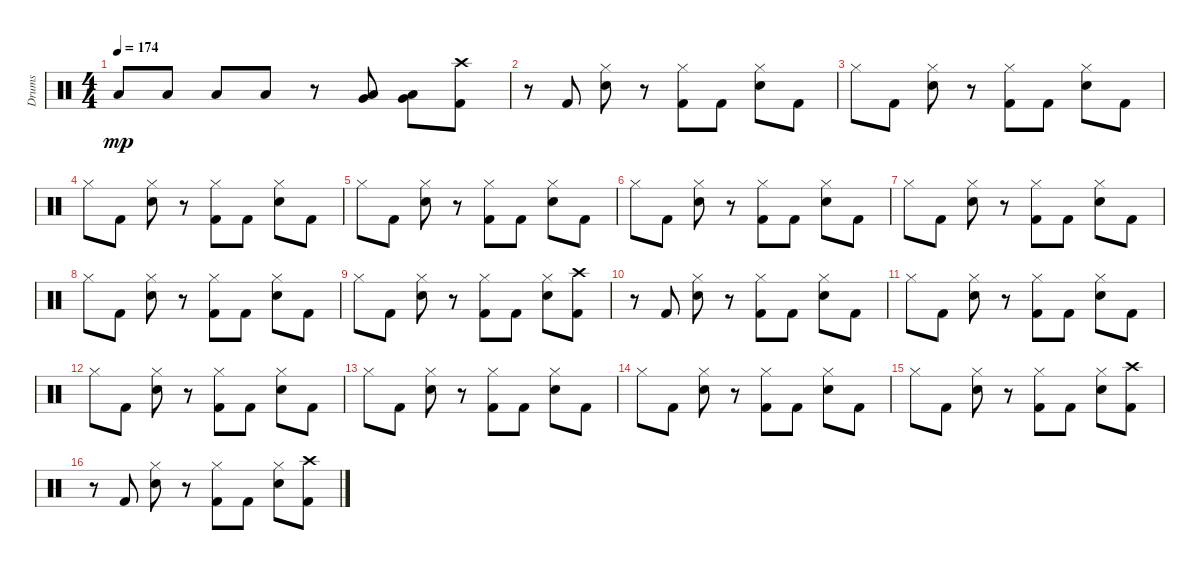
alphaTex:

\track ("Drums" "Drums") {instrument percussion}
\staff {score}
\articulation defaults
\ts (4 4)
\tempo 174
\clef neutral
\ks c "Low Floor Tom (hit)".8{dy mp} "Low Floor Tom (hit)".8 "Low Floor Tom (hit)".8 "Low Floor Tom (hit)".8
r.8 ("Low Floor Tom (hit)" "Very Low Tom (hit)").8 ("Low Floor Tom (hit)" "Very Low Tom (hit)").8 ("Crash high (hit)" "Kick (hit) 2").8 |
r.8 "Kick (hit) 2".8 ("Hi-Hat (closed)" "Snare (hit) 2").8 r.8 ("Kick (hit) 2" "Hi-Hat (closed)").8 "Kick (hit) 2".8 ("Snare (hit) 2" "Hi-Hat (closed)").8 "Kick (hit) 2".8 |
"Hi-Hat (closed)".8 "Kick (hit) 2".8 ("Hi-Hat (closed)" "Snare (hit) 2").8 r.8 ("Hi-Hat (closed)" "Kick (hit) 2").8 "Kick (hit) 2".8 ("Hi-Hat (closed)" "Snare (hit) 2").8 "Kick (hit) 2".8 |
"Hi-Hat (closed)".8 "Kick (hit) 2".8 ("Hi-Hat (closed)" "Snare (hit) 2").8 r.8 ("Hi-Hat (closed)" "Kick (hit) 2").8 "Kick (hit) 2".8 ("Snare (hit) 2" "Hi-Hat (closed)").8 "Kick (hit) 2".8 |
"Hi-Hat (closed)".8 "Kick (hit) 2".8 ("Snare (hit) 2" "Hi-Hat (closed)").8 r.8 ("Kick (hit) 2" "Hi-Hat (closed)").8 "Kick (hit) 2".8 ("Snare (hit) 2" "Hi-Hat (closed)").8 "Kick (hit) 2".8 |
"Hi-Hat (closed)".8 "Kick (hit) 2".8 ("Snare (hit) 2" "Hi-Hat (closed)").8 r.8 ("Kick (hit) 2" "Hi-Hat (closed)").8 "Kick (hit) 2".8 ("Snare (hit) 2" "Hi-Hat (closed)").8 "Kick (hit) 2".8 |
"Hi-Hat (closed)".8 "Kick (hit) 2".8 ("Snare (hit) 2" "Hi-Hat (closed)").8 r.8 ("Hi-Hat (closed)" "Kick (hit) 2").8 "Kick (hit) 2".8 ("Hi-Hat (closed)" "Snare (hit) 2").8 "Kick (hit) 2".8 |
"Hi-Hat (closed)".8 "Kick (hit) 2".8 ("Hi-Hat (closed)" "Snare (hit) 2").8 r.8 ("Kick (hit) 2" "Hi-Hat (closed)").8 "Kick (hit) 2".8 ("Snare (hit) 2" "Hi-Hat (closed)").8 "Kick (hit) 2".8 |
"Hi-Hat (closed)".8 "Kick (hit) 2".8 ("Snare (hit) 2" "Hi-Hat (closed)").8 r.8 ("Hi-Hat (closed)" "Kick (hit) 2").8 "Kick (hit) 2".8 ("Snare (hit) 2" "Hi-Hat (closed)").8 ("Kick (hit) 2" "Crash high (hit)").8 |
r.8 "Kick (hit) 2".8 ("Snare (hit) 2" "Hi-Hat (closed)").8 r.8 ("Hi-Hat (closed)" "Kick (hit) 2").8 "Kick (hit) 2".8 ("Hi-Hat (closed)" "Snare (hit) 2").8 "Kick (hit) 2".8 |
"Hi-Hat (closed)".8 "Kick (hit) 2".8 ("Snare (hit) 2" "Hi-Hat (closed)").8 r.8 ("Kick (hit) 2" "Hi-Hat (closed)").8 "Kick (hit) 2".8 ("Hi-Hat (closed)" "Snare (hit) 2").8 "Kick (hit) 2".8 |
"Hi-Hat (closed)".8 "Kick (hit) 2".8 ("Hi-Hat (closed)" "Snare (hit) 2").8 r.8 ("Hi-Hat (closed)" "Kick (hit) 2").8 "Kick (hit) 2".8 ("Hi-Hat (closed)" "Snare (hit) 2").8 "Kick (hit) 2".8 |
"Hi-Hat (closed)".8 "Kick (hit) 2".8 ("Hi-Hat (closed)" "Snare (hit) 2").8 r.8 ("Hi-Hat (closed)" "Kick (hit) 2").8 "Kick (hit) 2".8 ("Hi-Hat (closed)" "Snare (hit) 2").8 "Kick (hit) 2".8 |
"Hi-Hat (closed)".8 "Kick (hit) 2".8 ("Snare (hit) 2" "Hi-Hat (closed)").8 r.8 ("Kick (hit) 2" "Hi-Hat (closed)").8 "Kick (hit) 2".8 ("Hi-Hat (closed)" "Snare (hit) 2").8 "Kick (hit) 2".8 |
"Hi-Hat (closed)".8 "Kick (hit) 2".8 ("Hi-Hat (closed)" "Snare (hit) 2").8 r.8 ("Hi-Hat (closed)" "Kick (hit) 2").8 "Kick (hit) 2".8 ("Hi-Hat (closed)" "Snare (hit) 2").8 ("Kick (hit) 2" "Crash high (hit)").8 |
r.8 "Kick (hit) 2".8 ("Snare (hit) 2" "Hi-Hat (closed)").8 r.8 ("Hi-Hat (closed)" "Kick (hit) 2").8 "Kick (hit) 2".8 ("Snare (hit) 2" "Hi-Hat (closed)").8 ("Crash high (hit)" "Kick (hit) 2").8
